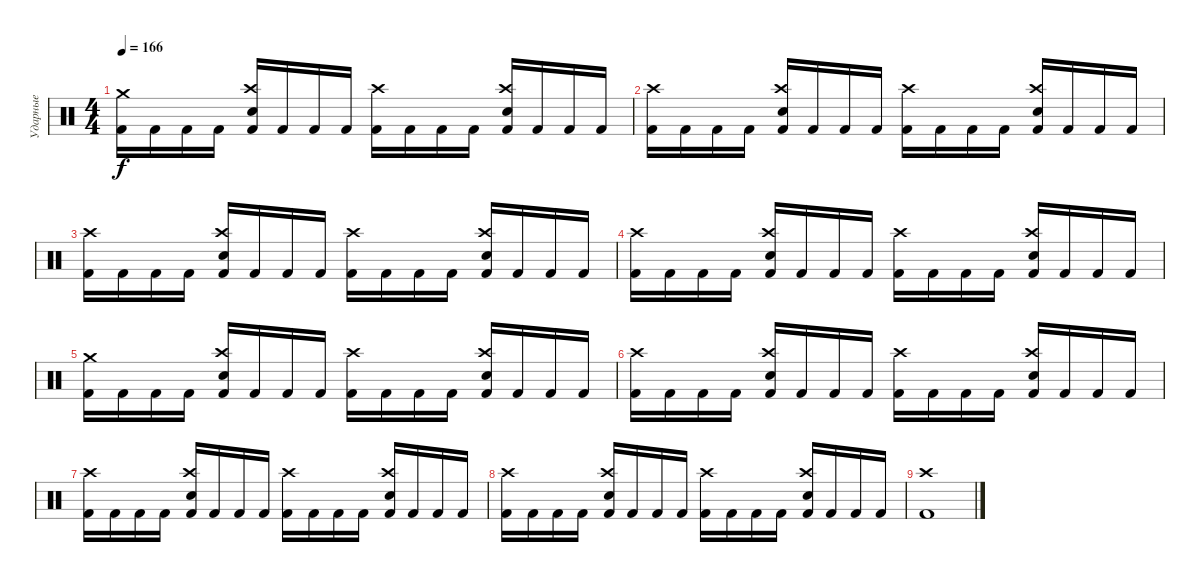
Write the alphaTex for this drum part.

\track ("Ударные" "Ударные") {instrument percussion}
\staff {score}
\articulation defaults
\ts (4 4)
\tempo 166
\clef neutral
\ks c
("Crash medium (hit)" "Kick (hit) 2").16{dy f} "Kick (hit) 2".16 "Kick (hit) 2".16 "Kick (hit) 2".16 ("Crash high (hit)" "Electric Snare (hit)" "Kick (hit) 2").16 "Kick (hit) 2".16 "Kick (hit) 2".16 "Kick (hit) 2".16 ("Crash high (hit)" "Kick (hit) 2").16 "Kick (hit) 2".16 "Kick (hit) 2".16 "Kick (hit) 2".16 ("Crash high (hit)" "Electric Snare (hit)" "Kick (hit) 2").16 "Kick (hit) 2".16 "Kick (hit) 2".16 "Kick (hit) 2".16 |
("Crash high (hit)" "Kick (hit) 2").16 "Kick (hit) 2".16 "Kick (hit) 2".16 "Kick (hit) 2".16 ("Crash high (hit)" "Electric Snare (hit)" "Kick (hit) 2").16 "Kick (hit) 2".16 "Kick (hit) 2".16 "Kick (hit) 2".16 ("Crash high (hit)" "Kick (hit) 2").16 "Kick (hit) 2".16 "Kick (hit) 2".16 "Kick (hit) 2".16 ("Crash high (hit)" "Electric Snare (hit)" "Kick (hit) 2").16 "Kick (hit) 2".16 "Kick (hit) 2".16 "Kick (hit) 2".16 |
("Crash high (hit)" "Kick (hit) 2").16 "Kick (hit) 2".16 "Kick (hit) 2".16 "Kick (hit) 2".16 ("Crash high (hit)" "Electric Snare (hit)" "Kick (hit) 2").16 "Kick (hit) 2".16 "Kick (hit) 2".16 "Kick (hit) 2".16 ("Crash high (hit)" "Kick (hit) 2").16 "Kick (hit) 2".16 "Kick (hit) 2".16 "Kick (hit) 2".16 ("Crash high (hit)" "Electric Snare (hit)" "Kick (hit) 2").16 "Kick (hit) 2".16 "Kick (hit) 2".16 "Kick (hit) 2".16 |
("Crash high (hit)" "Kick (hit) 2").16 "Kick (hit) 2".16 "Kick (hit) 2".16 "Kick (hit) 2".16 ("Crash high (hit)" "Electric Snare (hit)" "Kick (hit) 2").16 "Kick (hit) 2".16 "Kick (hit) 2".16 "Kick (hit) 2".16 ("Crash high (hit)" "Kick (hit) 2").16 "Kick (hit) 2".16 "Kick (hit) 2".16 "Kick (hit) 2".16 ("Crash high (hit)" "Electric Snare (hit)" "Kick (hit) 2").16 "Kick (hit) 2".16 "Kick (hit) 2".16 "Kick (hit) 2".16 |
("Crash medium (hit)" "Kick (hit) 2").16 "Kick (hit) 2".16 "Kick (hit) 2".16 "Kick (hit) 2".16 ("Crash high (hit)" "Electric Snare (hit)" "Kick (hit) 2").16 "Kick (hit) 2".16 "Kick (hit) 2".16 "Kick (hit) 2".16 ("Crash high (hit)" "Kick (hit) 2").16 "Kick (hit) 2".16 "Kick (hit) 2".16 "Kick (hit) 2".16 ("Crash high (hit)" "Electric Snare (hit)" "Kick (hit) 2").16 "Kick (hit) 2".16 "Kick (hit) 2".16 "Kick (hit) 2".16 |
("Crash high (hit)" "Kick (hit) 2").16 "Kick (hit) 2".16 "Kick (hit) 2".16 "Kick (hit) 2".16 ("Crash high (hit)" "Electric Snare (hit)" "Kick (hit) 2").16 "Kick (hit) 2".16 "Kick (hit) 2".16 "Kick (hit) 2".16 ("Crash high (hit)" "Kick (hit) 2").16 "Kick (hit) 2".16 "Kick (hit) 2".16 "Kick (hit) 2".16 ("Crash high (hit)" "Electric Snare (hit)" "Kick (hit) 2").16 "Kick (hit) 2".16 "Kick (hit) 2".16 "Kick (hit) 2".16 |
("Crash high (hit)" "Kick (hit) 2").16 "Kick (hit) 2".16 "Kick (hit) 2".16 "Kick (hit) 2".16 ("Crash high (hit)" "Electric Snare (hit)" "Kick (hit) 2").16 "Kick (hit) 2".16 "Kick (hit) 2".16 "Kick (hit) 2".16 ("Crash high (hit)" "Kick (hit) 2").16 "Kick (hit) 2".16 "Kick (hit) 2".16 "Kick (hit) 2".16 ("Crash high (hit)" "Electric Snare (hit)" "Kick (hit) 2").16 "Kick (hit) 2".16 "Kick (hit) 2".16 "Kick (hit) 2".16 |
("Crash high (hit)" "Kick (hit) 2").16 "Kick (hit) 2".16 "Kick (hit) 2".16 "Kick (hit) 2".16 ("Crash high (hit)" "Electric Snare (hit)" "Kick (hit) 2").16 "Kick (hit) 2".16 "Kick (hit) 2".16 "Kick (hit) 2".16 ("Crash high (hit)" "Kick (hit) 2").16 "Kick (hit) 2".16 "Kick (hit) 2".16 "Kick (hit) 2".16 ("Crash high (hit)" "Electric Snare (hit)" "Kick (hit) 2").16 "Kick (hit) 2".16 "Kick (hit) 2".16 "Kick (hit) 2".16 |
("Crash high (hit)" "Kick (hit) 2").1
